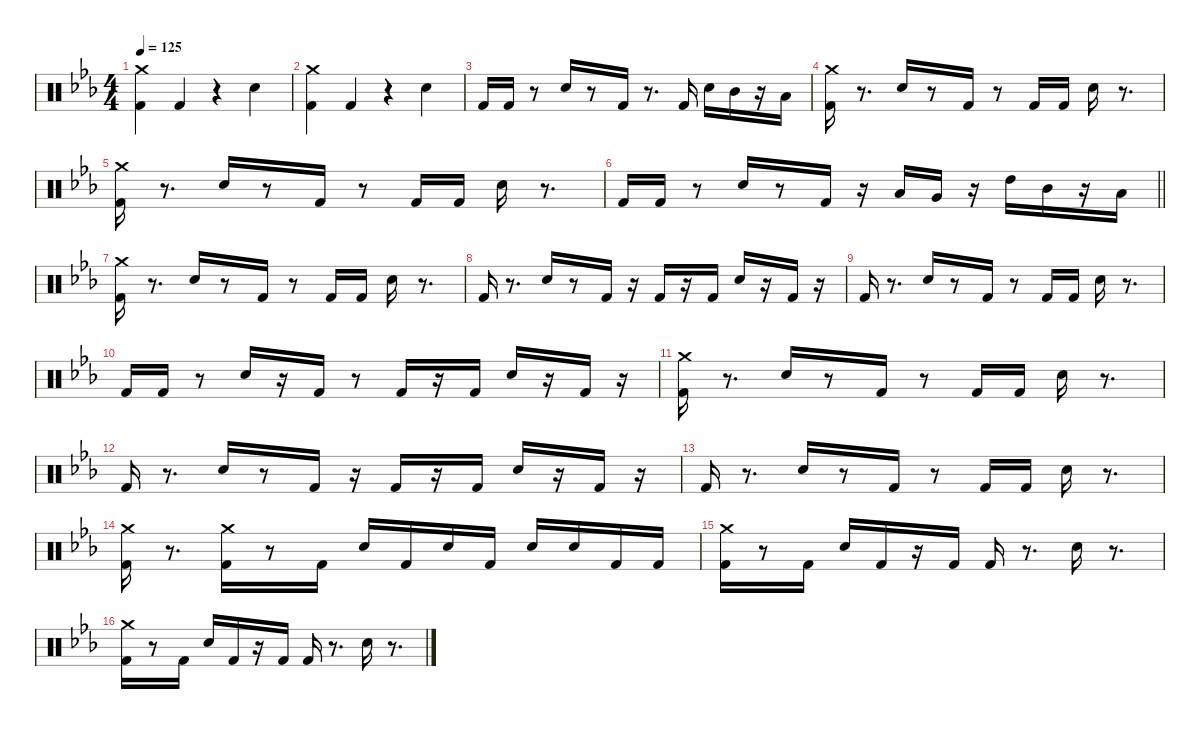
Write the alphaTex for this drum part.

\defaultSystemsLayout 4
\hideDynamics
\bracketExtendMode nobrackets
\singleTrackTrackNamePolicy hidden
\multiTrackTrackNamePolicy hidden
\firstSystemTrackNameMode fullname
\firstSystemTrackNameOrientation horizontal
\otherSystemsTrackNameOrientation horizontal
\track ("Batterie" "drm.") {instrument percussion}
\staff {score}
\articulation defaults
\ts (4 4)
\beaming (8 2 2 2 2)
\tempo 125
\clef neutral
\ks eb
("Crash medium (hit)"{acc forcenatural} "Kick (hit) 2"{acc forcenatural}).4{dy f beam Down} "Kick (hit) 2"{acc forcenatural}.4{beam Up} r.4{beam Up} "Snare (hit) 2"{acc forcenatural}.4{beam Down} |
("Crash medium (hit)"{acc forcenatural} "Kick (hit) 2"{acc forcenatural}).4{beam Down} "Kick (hit) 2"{acc forcenatural}.4{beam Up} r.4{beam Up} "Snare (hit) 2"{acc forcenatural}.4{beam Down} |
"Kick (hit) 2"{acc forcenatural}.16{beam Up} "Kick (hit) 2"{acc forcenatural}.16{beam Up} r.8{beam Up} "Snare (hit) 2"{acc forcenatural}.16{beam Up} r.8{beam Up} "Kick (hit) 2"{acc forcenatural}.16{beam Up} r.8{d beam Up} "Kick (hit) 2"{acc forcenatural}.16{beam Up} "Snare (hit) 2"{acc forcenatural}.16{beam Down} "Mid Tom (hit)"{acc forcenatural}.16{beam Down} r.16{beam Down} "Low Tom (hit)"{acc forcenatural}.16{beam Down} |
("Crash medium (hit)"{acc forcenatural} "Kick (hit) 2"{acc forcenatural}).16{beam Down} r.8{d beam Down} "Snare (hit) 2"{acc forcenatural}.16{beam Up} r.8{beam Up} "Kick (hit) 2"{acc forcenatural}.16{beam Up} r.8{beam Up} "Kick (hit) 2"{acc forcenatural}.16{beam Up} "Kick (hit) 2"{acc forcenatural}.16{beam Up} "Snare (hit) 2"{acc forcenatural}.16{beam Down} r.8{d beam Down} |
("Crash medium (hit)"{acc forcenatural} "Kick (hit) 2"{acc forcenatural}).16{beam Down} r.8{d beam Down} "Snare (hit) 2"{acc forcenatural}.16{beam Up} r.8{beam Up} "Kick (hit) 2"{acc forcenatural}.16{beam Up} r.8{beam Up} "Kick (hit) 2"{acc forcenatural}.16{beam Up} "Kick (hit) 2"{acc forcenatural}.16{beam Up} "Snare (hit) 2"{acc forcenatural}.16{beam Down} r.8{d beam Down} |
\barLineRight lightlight "Kick (hit) 2"{acc forcenatural}.16{beam Up} "Kick (hit) 2"{acc forcenatural}.16{beam Up}
r.8{beam Up} "Snare (hit) 2"{acc forcenatural}.16{beam Up} r.8{beam Up} "Kick (hit) 2"{acc forcenatural}.16{beam Up} r.16{beam Up} "Low Tom (hit)"{acc forcenatural}.16{beam Up} "Very Low Tom (hit)"{acc forcenatural}.16{beam Up} r.16{beam Up} "High Tom (hit)"{acc forcenatural}.16{beam Down} "Mid Tom (hit)"{acc forcenatural}.16{beam Down} r.16{beam Down} "Low Tom (hit)"{acc forcenatural}.16{beam Down} |
("Crash medium (hit)"{acc forcenatural} "Kick (hit) 2"{acc forcenatural}).16{beam Down} r.8{d beam Down} "Snare (hit) 2"{acc forcenatural}.16{beam Up} r.8{beam Up} "Kick (hit) 2"{acc forcenatural}.16{beam Up} r.8{beam Up} "Kick (hit) 2"{acc forcenatural}.16{beam Up} "Kick (hit) 2"{acc forcenatural}.16{beam Up} "Snare (hit) 2"{acc forcenatural}.16{beam Down} r.8{d beam Down} |
"Kick (hit) 2"{acc forcenatural}.16{beam Up} r.8{d beam Up} "Snare (hit) 2"{acc forcenatural}.16{beam Up} r.8{beam Up} "Kick (hit) 2"{acc forcenatural}.16{beam Up} r.16{beam Up} "Kick (hit) 2"{acc forcenatural}.16{beam Up} r.16{beam Up} "Kick (hit) 2"{acc forcenatural}.16{beam Up} "Snare (hit) 2"{acc forcenatural}.16{beam Up} r.16{beam Up} "Kick (hit) 2"{acc forcenatural}.16{beam Up} r.16{beam Up} |
"Kick (hit) 2"{acc forcenatural}.16{beam Up} r.8{d beam Up} "Snare (hit) 2"{acc forcenatural}.16{beam Up} r.8{beam Up} "Kick (hit) 2"{acc forcenatural}.16{beam Up} r.8{beam Up} "Kick (hit) 2"{acc forcenatural}.16{beam Up} "Kick (hit) 2"{acc forcenatural}.16{beam Up} "Snare (hit) 2"{acc forcenatural}.16{beam Down} r.8{d beam Down} |
"Kick (hit) 2"{acc forcenatural}.16{beam Up} "Kick (hit) 2"{acc forcenatural}.16{beam Up} r.8{beam Up} "Snare (hit) 2"{acc forcenatural}.16{beam Up} r.16{beam Up} "Kick (hit) 2"{acc forcenatural}.16{beam Up} r.8{beam Up} "Kick (hit) 2"{acc forcenatural}.16{beam Up} r.16{beam Up} "Kick (hit) 2"{acc forcenatural}.16{beam Up} "Snare (hit) 2"{acc forcenatural}.16{beam Up} r.16{beam Up} "Kick (hit) 2"{acc forcenatural}.16{beam Up} r.16{beam Up} |
("Crash medium (hit)"{acc forcenatural} "Kick (hit) 2"{acc forcenatural}).16{beam Down} r.8{d beam Down} "Snare (hit) 2"{acc forcenatural}.16{beam Up} r.8{beam Up} "Kick (hit) 2"{acc forcenatural}.16{beam Up} r.8{beam Up} "Kick (hit) 2"{acc forcenatural}.16{beam Up} "Kick (hit) 2"{acc forcenatural}.16{beam Up} "Snare (hit) 2"{acc forcenatural}.16{beam Down} r.8{d beam Down} |
"Kick (hit) 2"{acc forcenatural}.16{beam Up} r.8{d beam Up} "Snare (hit) 2"{acc forcenatural}.16{beam Up} r.8{beam Up} "Kick (hit) 2"{acc forcenatural}.16{beam Up} r.16{beam Up} "Kick (hit) 2"{acc forcenatural}.16{beam Up} r.16{beam Up} "Kick (hit) 2"{acc forcenatural}.16{beam Up} "Snare (hit) 2"{acc forcenatural}.16{beam Up} r.16{beam Up} "Kick (hit) 2"{acc forcenatural}.16{beam Up} r.16{beam Up} |
"Kick (hit) 2"{acc forcenatural}.16{beam Up} r.8{d beam Up} "Snare (hit) 2"{acc forcenatural}.16{beam Up} r.8{beam Up} "Kick (hit) 2"{acc forcenatural}.16{beam Up} r.8{beam Up} "Kick (hit) 2"{acc forcenatural}.16{beam Up} "Kick (hit) 2"{acc forcenatural}.16{beam Up} "Snare (hit) 2"{acc forcenatural}.16{beam Down} r.8{d beam Down} |
("Crash medium (hit)"{acc forcenatural} "Kick (hit) 2"{acc forcenatural}).16{beam Down} r.8{d beam Down} ("Crash medium (hit)"{acc forcenatural} "Kick (hit) 2"{acc forcenatural}).16{beam Down} r.8{beam Down} "Kick (hit) 2"{acc forcenatural}.16{beam Down} "Snare (hit) 2"{acc forcenatural}.16{beam Up} "Kick (hit) 2"{acc forcenatural}.16{beam Up} "Snare (hit) 2"{acc forcenatural}.16{beam Up} "Kick (hit) 2"{acc forcenatural}.16{beam Up} "Snare (hit) 2"{acc forcenatural}.16{beam Up} "Snare (hit) 2"{acc forcenatural}.16{beam Up} "Kick (hit) 2"{acc forcenatural}.16{beam Up} "Kick (hit) 2"{acc forcenatural}.16{beam Up} |
("Kick (hit) 2"{acc forcenatural} "Crash medium (hit)"{acc forcenatural}).16{beam Down} r.8{beam Down} "Kick (hit) 2"{acc forcenatural}.16{beam Down} "Snare (hit) 2"{acc forcenatural}.16{beam Up} "Kick (hit) 2"{acc forcenatural}.16{beam Up} r.16{beam Up} "Kick (hit) 2"{acc forcenatural}.16{beam Up} "Kick (hit) 2"{acc forcenatural}.16{beam Up} r.8{d beam Up} "Snare (hit) 2"{acc forcenatural}.16{beam Down} r.8{d beam Down} |
("Kick (hit) 2"{acc forcenatural} "Crash medium (hit)"{acc forcenatural}).16{beam Down} r.8{beam Down} "Kick (hit) 2"{acc forcenatural}.16{beam Down} "Snare (hit) 2"{acc forcenatural}.16{beam Up} "Kick (hit) 2"{acc forcenatural}.16{beam Up} r.16{beam Up} "Kick (hit) 2"{acc forcenatural}.16{beam Up} "Kick (hit) 2"{acc forcenatural}.16{beam Up} r.8{d beam Up} "Snare (hit) 2"{acc forcenatural}.16{beam Down} r.8{d beam Down}
